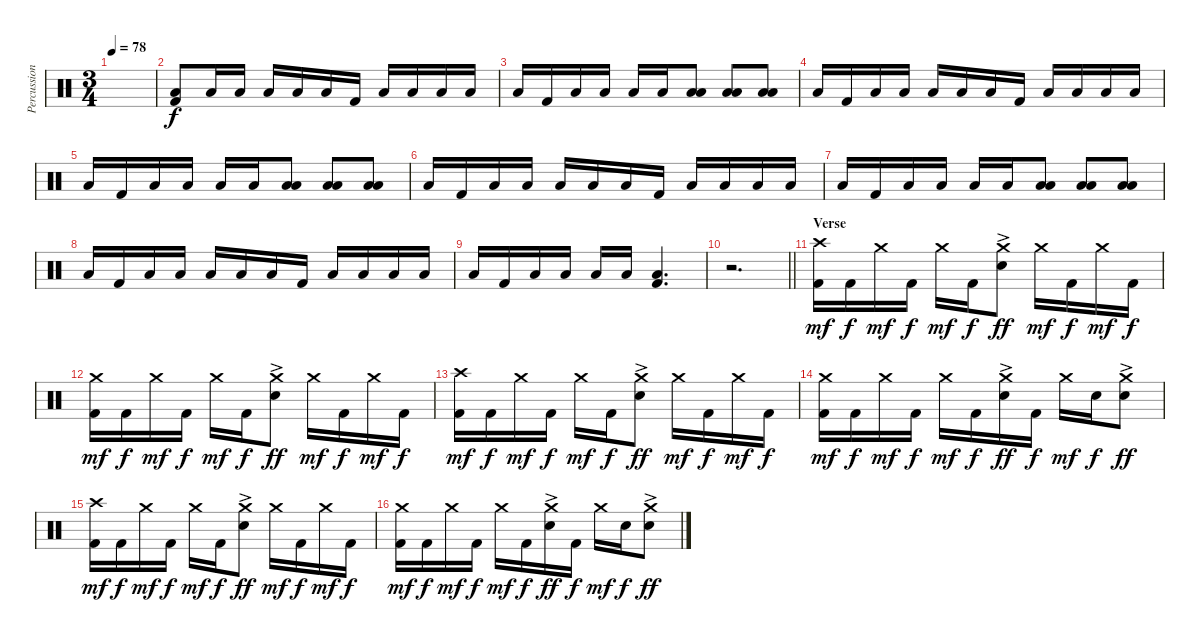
\track ("Percussion" "Percussion") {instrument percussion}
\staff {score}
\articulation defaults
\ts (3 4)
\tempo 78
\clef neutral
\ks c
|
("Low Tom (hit)" "Kick (hit) 2").8 "Low Tom (hit)".16 "Low Floor Tom (hit)".16 "Low Tom (hit)".16 "Low Floor Tom (hit)".16 "Low Tom (hit)".16 "Kick (hit) 2".16 "Low Tom (hit)".16 "Low Floor Tom (hit)".16 "Low Tom (hit)".16 "Low Floor Tom (hit)".16 |
"Low Tom (hit)".16 "Kick (hit) 2".16 "Low Tom (hit)".16 "Low Floor Tom (hit)".16 "Low Tom (hit)".16 "Low Floor Tom (hit)".16 ("Low Tom (hit)" "Low Tom (hit)").8{bu 120} ("Low Tom (hit)" "Low Tom (hit)").8{bu 120} ("Low Tom (hit)" "Low Tom (hit)").8{bu 120} |
"Low Tom (hit)".16 "Kick (hit) 2".16 "Low Tom (hit)".16 "Low Floor Tom (hit)".16 "Low Tom (hit)".16 "Low Floor Tom (hit)".16 "Low Tom (hit)".16 "Kick (hit) 2".16 "Low Tom (hit)".16 "Low Floor Tom (hit)".16 "Low Tom (hit)".16 "Low Floor Tom (hit)".16 |
"Low Tom (hit)".16 "Kick (hit) 2".16 "Low Tom (hit)".16 "Low Floor Tom (hit)".16 "Low Tom (hit)".16 "Low Floor Tom (hit)".16 ("Low Tom (hit)" "Low Tom (hit)").8{bu 120} ("Low Tom (hit)" "Low Tom (hit)").8{bu 120} ("Low Tom (hit)" "Low Tom (hit)").8{bu 120} |
"Low Tom (hit)".16 "Kick (hit) 2".16 "Low Tom (hit)".16 "Low Floor Tom (hit)".16 "Low Tom (hit)".16 "Low Floor Tom (hit)".16 "Low Tom (hit)".16 "Kick (hit) 2".16 "Low Tom (hit)".16 "Low Floor Tom (hit)".16 "Low Tom (hit)".16 "Low Floor Tom (hit)".16 |
"Low Tom (hit)".16 "Kick (hit) 2".16 "Low Tom (hit)".16 "Low Floor Tom (hit)".16 "Low Tom (hit)".16 "Low Floor Tom (hit)".16 ("Low Tom (hit)" "Low Tom (hit)").8{bu 120} ("Low Tom (hit)" "Low Tom (hit)").8{bu 120} ("Low Tom (hit)" "Low Tom (hit)").8{bu 120} |
"Low Tom (hit)".16 "Kick (hit) 2".16 "Low Tom (hit)".16 "Low Floor Tom (hit)".16 "Low Tom (hit)".16 "Low Floor Tom (hit)".16 "Low Tom (hit)".16 "Kick (hit) 2".16 "Low Tom (hit)".16 "Low Floor Tom (hit)".16 "Low Tom (hit)".16 "Low Floor Tom (hit)".16 |
"Low Tom (hit)".16 "Kick (hit) 2".16 "Low Tom (hit)".16 "Low Floor Tom (hit)".16 "Low Tom (hit)".16 "Low Floor Tom (hit)".16 ("Low Tom (hit)" "Kick (hit) 2").4{d} |
\barLineRight lightlight
r.2{d} |
\section ("" "Verse")
("Crash high (hit)" "Kick (hit) 2").16{dy mf} "Kick (hit) 2".16{dy f} "Crash medium (hit)".16{dy mf} "Kick (hit) 2".16{dy f} "Crash medium (hit)".16{dy mf} "Kick (hit) 2".16{dy f} ("Crash medium (hit)" "Electric Snare (hit)"{ac}).8{dy ff} "Crash medium (hit)".16{dy mf} "Kick (hit) 2".16{dy f} "Crash medium (hit)".16{dy mf} "Kick (hit) 2".16{dy f} |
("Crash medium (hit)" "Kick (hit) 2").16{dy mf} "Kick (hit) 2".16{dy f} "Crash medium (hit)".16{dy mf} "Kick (hit) 2".16{dy f} "Crash medium (hit)".16{dy mf} "Kick (hit) 2".16{dy f} ("Crash medium (hit)" "Electric Snare (hit)"{ac}).8{dy ff} "Crash medium (hit)".16{dy mf} "Kick (hit) 2".16{dy f} "Crash medium (hit)".16{dy mf} "Kick (hit) 2".16{dy f} |
("Crash high (hit)" "Kick (hit) 2").16{dy mf} "Kick (hit) 2".16{dy f} "Crash medium (hit)".16{dy mf} "Kick (hit) 2".16{dy f} "Crash medium (hit)".16{dy mf} "Kick (hit) 2".16{dy f} ("Crash medium (hit)" "Electric Snare (hit)"{ac}).8{dy ff} "Crash medium (hit)".16{dy mf} "Kick (hit) 2".16{dy f} "Crash medium (hit)".16{dy mf} "Kick (hit) 2".16{dy f} |
("Crash medium (hit)" "Kick (hit) 2").16{dy mf} "Kick (hit) 2".16{dy f} "Crash medium (hit)".16{dy mf} "Kick (hit) 2".16{dy f} "Crash medium (hit)".16{dy mf} "Kick (hit) 2".16{dy f} ("Crash medium (hit)" "Electric Snare (hit)"{ac}).16{dy ff} "Kick (hit) 2".16{dy f} "Crash medium (hit)".16{dy mf} "Electric Snare (hit)".16{dy f} ("Crash medium (hit)" "Electric Snare (hit)"{ac}).8{dy ff} |
("Crash high (hit)" "Kick (hit) 2").16{dy mf} "Kick (hit) 2".16{dy f} "Crash medium (hit)".16{dy mf} "Kick (hit) 2".16{dy f} "Crash medium (hit)".16{dy mf} "Kick (hit) 2".16{dy f} ("Crash medium (hit)" "Electric Snare (hit)"{ac}).8{dy ff} "Crash medium (hit)".16{dy mf} "Kick (hit) 2".16{dy f} "Crash medium (hit)".16{dy mf} "Kick (hit) 2".16{dy f} |
("Crash medium (hit)" "Kick (hit) 2").16{dy mf} "Kick (hit) 2".16{dy f} "Crash medium (hit)".16{dy mf} "Kick (hit) 2".16{dy f} "Crash medium (hit)".16{dy mf} "Kick (hit) 2".16{dy f} ("Crash medium (hit)" "Electric Snare (hit)"{ac}).16{dy ff} "Kick (hit) 2".16{dy f} "Crash medium (hit)".16{dy mf} "Electric Snare (hit)".16{dy f} ("Crash medium (hit)" "Electric Snare (hit)"{ac}).8{dy ff}
